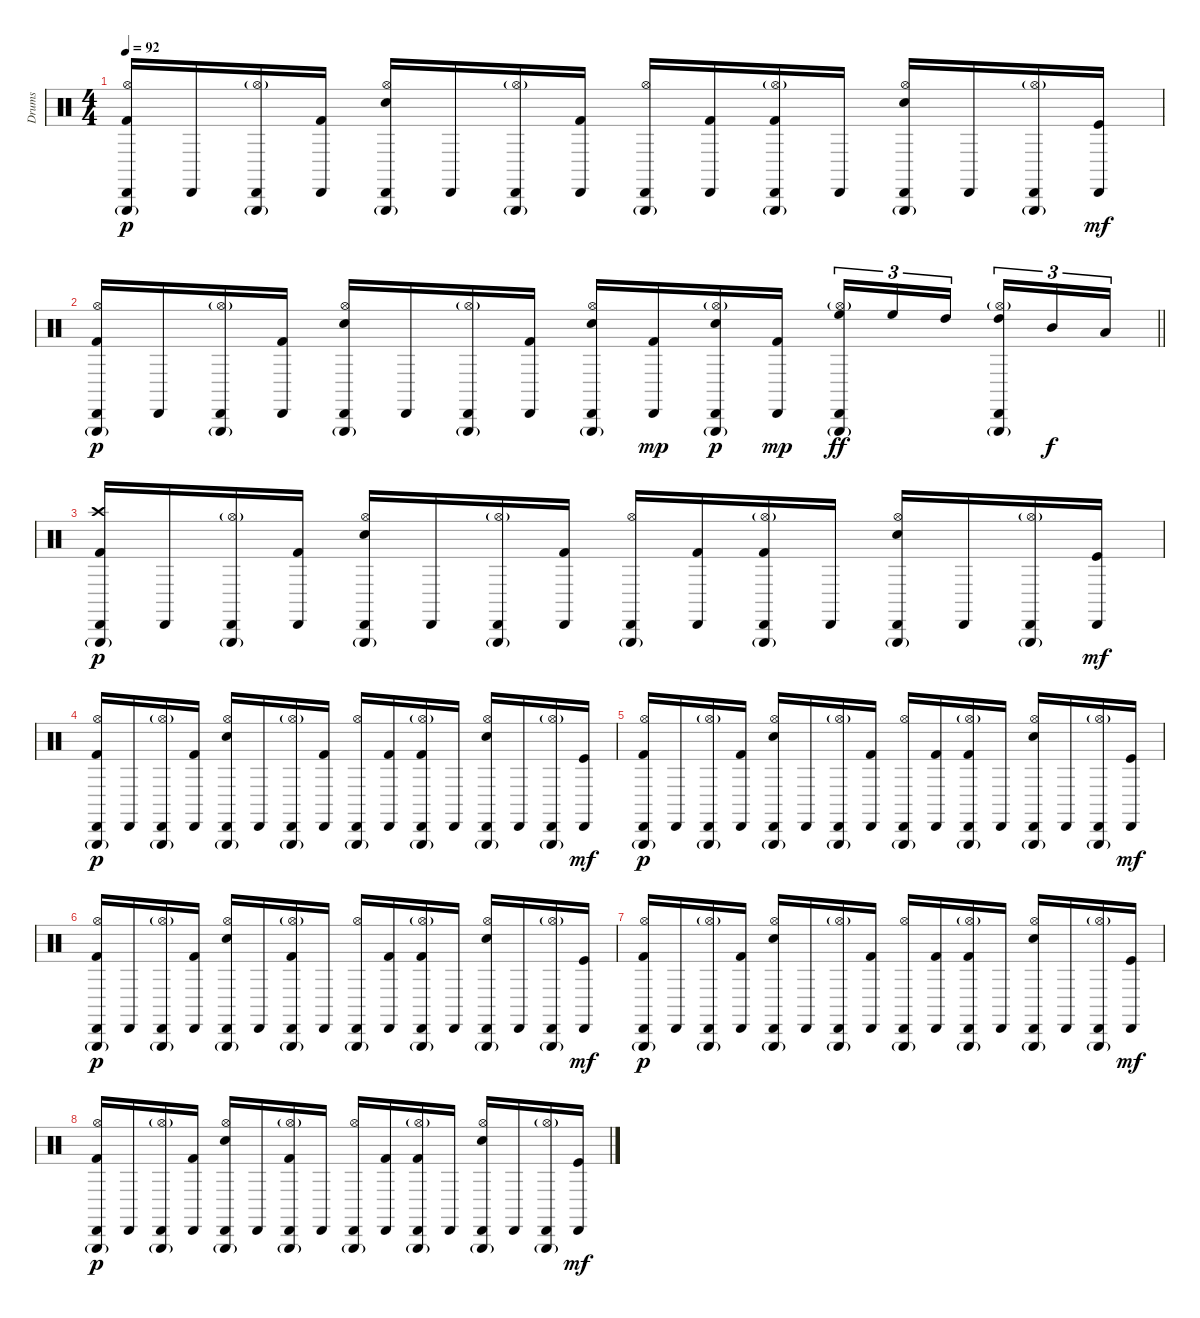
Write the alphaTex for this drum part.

\track ("Drums" "Drums") {instrument percussion}
\staff {score}
\articulation defaults
\ts (4 4)
\tempo 92
\clef neutral
\ks c
("Triangle (hit)"{g} "Hi-Hat (open)" "Cabasa (hit)" "Kick (hit) 2").16{dy p} "Cabasa (hit)".16 ("Triangle (hit)"{g} "Hi-Hat (open)"{g} "Cabasa (hit)").16 ("Cabasa (hit)" "Kick (hit) 2").16 ("Triangle (hit)"{g} "Hi-Hat (open)" "Cabasa (hit)" "Electric Snare (hit)").16 "Cabasa (hit)".16 ("Triangle (hit)"{g} "Hi-Hat (open)"{g} "Cabasa (hit)").16 ("Cabasa (hit)" "Kick (hit) 2").16 ("Triangle (hit)"{g} "Hi-Hat (open)" "Cabasa (hit)").16 ("Cabasa (hit)" "Kick (hit) 2").16 ("Triangle (hit)"{g} "Hi-Hat (open)"{g} "Cabasa (hit)" "Kick (hit) 2").16 "Cabasa (hit)".16 ("Triangle (hit)"{g} "Hi-Hat (open)" "Cabasa (hit)" "Electric Snare (hit)").16 "Cabasa (hit)".16 ("Triangle (hit)"{g} "Hi-Hat (open)"{g} "Cabasa (hit)").16 ("Cabasa (hit)" "Kick (hit)").16{dy mf} |
\barLineRight lightlight
("Triangle (hit)"{g} "Hi-Hat (open)" "Cabasa (hit)" "Kick (hit) 2").16{dy p} "Cabasa (hit)".16 ("Triangle (hit)"{g} "Hi-Hat (open)"{g} "Cabasa (hit)").16 ("Cabasa (hit)" "Kick (hit) 2").16 ("Triangle (hit)"{g} "Hi-Hat (open)" "Cabasa (hit)" "Electric Snare (hit)").16 "Cabasa (hit)".16 ("Triangle (hit)"{g} "Hi-Hat (open)"{g} "Cabasa (hit)").16 ("Cabasa (hit)" "Kick (hit) 2").16 ("Triangle (hit)"{g} "Hi-Hat (open)" "Cabasa (hit)" "Electric Snare (hit)").16 ("Cabasa (hit)" "Kick (hit) 2").16{dy mp} ("Triangle (hit)"{g} "Hi-Hat (open)"{g} "Cabasa (hit)" "Electric Snare (hit)").16{dy p} ("Cabasa (hit)" "Kick (hit) 2").16{dy mp} ("Triangle (hit)"{g} "Hi-Hat (open)"{g} "Cabasa (hit)" "High Floor Tom (hit)").16{tu (3 2) dy ff} "High Floor Tom (hit)".16{tu (3 2)} "High Tom (hit)".16{tu (3 2)} ("Triangle (hit)"{g} "Hi-Hat (open)"{g} "Cabasa (hit)" "High Tom (hit)").16{tu (3 2)} "Mid Tom (hit)".16{tu (3 2) dy f} "Low Tom (hit)".16{tu (3 2)} |
("Crash high (hit)" "Triangle (hit)"{g} "Cabasa (hit)" "Kick (hit) 2").16{dy p} "Cabasa (hit)".16 ("Triangle (hit)"{g} "Hi-Hat (open)"{g} "Cabasa (hit)").16 ("Cabasa (hit)" "Kick (hit) 2").16 ("Triangle (hit)"{g} "Hi-Hat (open)" "Cabasa (hit)" "Electric Snare (hit)").16 "Cabasa (hit)".16 ("Triangle (hit)"{g} "Hi-Hat (open)"{g} "Cabasa (hit)").16 ("Cabasa (hit)" "Kick (hit) 2").16 ("Triangle (hit)"{g} "Hi-Hat (open)" "Cabasa (hit)").16 ("Cabasa (hit)" "Kick (hit) 2").16 ("Triangle (hit)"{g} "Hi-Hat (open)"{g} "Cabasa (hit)" "Kick (hit) 2").16 "Cabasa (hit)".16 ("Triangle (hit)"{g} "Hi-Hat (open)" "Cabasa (hit)" "Electric Snare (hit)").16 "Cabasa (hit)".16 ("Triangle (hit)"{g} "Hi-Hat (open)"{g} "Cabasa (hit)").16 ("Cabasa (hit)" "Kick (hit)").16{dy mf} |
("Triangle (hit)"{g} "Hi-Hat (open)" "Cabasa (hit)" "Kick (hit) 2").16{dy p} "Cabasa (hit)".16 ("Triangle (hit)"{g} "Hi-Hat (open)"{g} "Cabasa (hit)").16 ("Cabasa (hit)" "Kick (hit) 2").16 ("Triangle (hit)"{g} "Hi-Hat (open)" "Cabasa (hit)" "Electric Snare (hit)").16 "Cabasa (hit)".16 ("Triangle (hit)"{g} "Hi-Hat (open)"{g} "Cabasa (hit)").16 ("Cabasa (hit)" "Kick (hit) 2").16 ("Triangle (hit)"{g} "Hi-Hat (open)" "Cabasa (hit)").16 ("Cabasa (hit)" "Kick (hit) 2").16 ("Triangle (hit)"{g} "Hi-Hat (open)"{g} "Cabasa (hit)" "Kick (hit) 2").16 "Cabasa (hit)".16 ("Triangle (hit)"{g} "Hi-Hat (open)" "Cabasa (hit)" "Electric Snare (hit)").16 "Cabasa (hit)".16 ("Triangle (hit)"{g} "Hi-Hat (open)"{g} "Cabasa (hit)").16 ("Cabasa (hit)" "Kick (hit)").16{dy mf} |
("Triangle (hit)"{g} "Hi-Hat (open)" "Cabasa (hit)" "Kick (hit) 2").16{dy p} "Cabasa (hit)".16 ("Triangle (hit)"{g} "Hi-Hat (open)"{g} "Cabasa (hit)").16 ("Cabasa (hit)" "Kick (hit) 2").16 ("Triangle (hit)"{g} "Hi-Hat (open)" "Cabasa (hit)" "Electric Snare (hit)").16 "Cabasa (hit)".16 ("Triangle (hit)"{g} "Hi-Hat (open)"{g} "Cabasa (hit)").16 ("Cabasa (hit)" "Kick (hit) 2").16 ("Triangle (hit)"{g} "Hi-Hat (open)" "Cabasa (hit)").16 ("Cabasa (hit)" "Kick (hit) 2").16 ("Triangle (hit)"{g} "Hi-Hat (open)"{g} "Cabasa (hit)" "Kick (hit) 2").16 "Cabasa (hit)".16 ("Triangle (hit)"{g} "Hi-Hat (open)" "Cabasa (hit)" "Electric Snare (hit)").16 "Cabasa (hit)".16 ("Triangle (hit)"{g} "Hi-Hat (open)"{g} "Cabasa (hit)").16 ("Cabasa (hit)" "Kick (hit)").16{dy mf} |
("Triangle (hit)"{g} "Hi-Hat (open)" "Cabasa (hit)" "Kick (hit) 2").16{dy p} "Cabasa (hit)".16 ("Triangle (hit)"{g} "Hi-Hat (open)"{g} "Cabasa (hit)").16 ("Cabasa (hit)" "Kick (hit) 2").16 ("Triangle (hit)"{g} "Hi-Hat (open)" "Cabasa (hit)" "Electric Snare (hit)").16 "Cabasa (hit)".16 ("Triangle (hit)"{g} "Hi-Hat (open)"{g} "Cabasa (hit)" "Kick (hit) 2").16 "Cabasa (hit)".16 ("Triangle (hit)"{g} "Hi-Hat (open)" "Cabasa (hit)").16 ("Cabasa (hit)" "Kick (hit) 2").16 ("Triangle (hit)"{g} "Hi-Hat (open)"{g} "Cabasa (hit)" "Kick (hit) 2").16 "Cabasa (hit)".16 ("Triangle (hit)"{g} "Hi-Hat (open)" "Cabasa (hit)" "Electric Snare (hit)").16 "Cabasa (hit)".16 ("Triangle (hit)"{g} "Hi-Hat (open)"{g} "Cabasa (hit)").16 ("Cabasa (hit)" "Kick (hit)").16{dy mf} |
("Triangle (hit)"{g} "Hi-Hat (open)" "Cabasa (hit)" "Kick (hit) 2").16{dy p} "Cabasa (hit)".16 ("Triangle (hit)"{g} "Hi-Hat (open)"{g} "Cabasa (hit)").16 ("Cabasa (hit)" "Kick (hit) 2").16 ("Triangle (hit)"{g} "Hi-Hat (open)" "Cabasa (hit)" "Electric Snare (hit)").16 "Cabasa (hit)".16 ("Triangle (hit)"{g} "Hi-Hat (open)"{g} "Cabasa (hit)").16 ("Cabasa (hit)" "Kick (hit) 2").16 ("Triangle (hit)"{g} "Hi-Hat (open)" "Cabasa (hit)").16 ("Cabasa (hit)" "Kick (hit) 2").16 ("Triangle (hit)"{g} "Hi-Hat (open)"{g} "Cabasa (hit)" "Kick (hit) 2").16 "Cabasa (hit)".16 ("Triangle (hit)"{g} "Hi-Hat (open)" "Cabasa (hit)" "Electric Snare (hit)").16 "Cabasa (hit)".16 ("Triangle (hit)"{g} "Hi-Hat (open)"{g} "Cabasa (hit)").16 ("Cabasa (hit)" "Kick (hit)").16{dy mf} |
("Triangle (hit)"{g} "Hi-Hat (open)" "Cabasa (hit)" "Kick (hit) 2").16{dy p} "Cabasa (hit)".16 ("Triangle (hit)"{g} "Hi-Hat (open)"{g} "Cabasa (hit)").16 ("Cabasa (hit)" "Kick (hit) 2").16 ("Triangle (hit)"{g} "Hi-Hat (open)" "Cabasa (hit)" "Electric Snare (hit)").16 "Cabasa (hit)".16 ("Triangle (hit)"{g} "Hi-Hat (open)"{g} "Cabasa (hit)" "Kick (hit) 2").16 "Cabasa (hit)".16 ("Triangle (hit)"{g} "Hi-Hat (open)" "Cabasa (hit)").16 ("Cabasa (hit)" "Kick (hit) 2").16 ("Triangle (hit)"{g} "Hi-Hat (open)"{g} "Cabasa (hit)" "Kick (hit) 2").16 "Cabasa (hit)".16 ("Triangle (hit)"{g} "Hi-Hat (open)" "Cabasa (hit)" "Electric Snare (hit)").16 "Cabasa (hit)".16 ("Triangle (hit)"{g} "Hi-Hat (open)"{g} "Cabasa (hit)").16 ("Cabasa (hit)" "Kick (hit)").16{dy mf}
